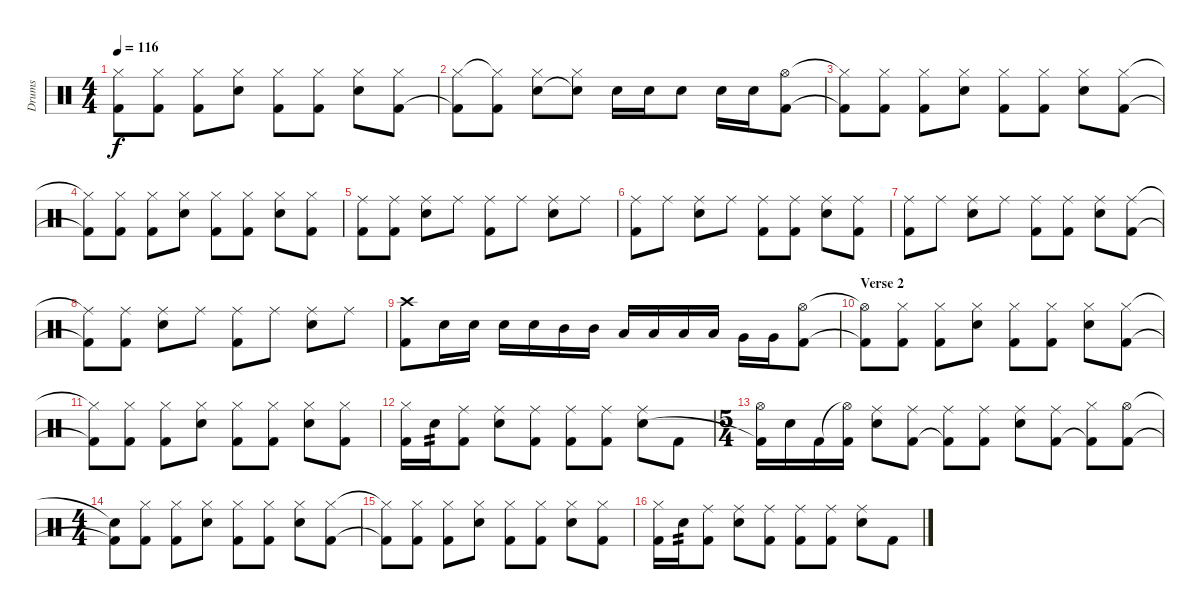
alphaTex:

\track ("Drums" "Drums") {instrument percussion}
\staff {score}
\articulation defaults
\ts (4 4)
\tempo 116
\clef neutral
\ks c
("Hi-Hat (closed)"{t} "Kick (hit) 2"{t}).8{dy f} ("Hi-Hat (closed)" "Kick (hit) 2").8 ("Hi-Hat (closed)" "Kick (hit) 2").8 ("Hi-Hat (closed)" "Snare (hit) 2").8 ("Hi-Hat (closed)" "Kick (hit) 2").8 ("Hi-Hat (closed)" "Kick (hit) 2").8 ("Hi-Hat (closed)" "Snare (hit) 2").8 ("Hi-Hat (closed)" "Kick (hit) 2").8 |
("Hi-Hat (closed)" "Kick (hit) 2"{t}).8 ("Hi-Hat (closed)"{t} "Kick (hit) 2").8 ("Hi-Hat (closed)" "Snare (hit) 2").8 ("Hi-Hat (closed)" "Snare (hit) 2"{t}).8 "Snare (hit) 2".16 "Snare (hit) 2".16 "Snare (hit) 2".8 "Snare (hit) 2".16 "Snare (hit) 2".16 ("Hi-Hat (open)" "Kick (hit) 2").8 |
("Hi-Hat (closed)"{t} "Kick (hit) 2"{t}).8 ("Hi-Hat (closed)" "Kick (hit) 2").8 ("Hi-Hat (closed)" "Kick (hit) 2").8 ("Hi-Hat (closed)" "Snare (hit) 2").8 ("Hi-Hat (closed)" "Kick (hit) 2").8 ("Hi-Hat (closed)" "Kick (hit) 2").8 ("Hi-Hat (closed)" "Snare (hit) 2").8 ("Hi-Hat (closed)" "Kick (hit) 2").8 |
("Hi-Hat (closed)"{t} "Kick (hit) 2"{t}).8 ("Hi-Hat (closed)" "Kick (hit) 2").8 ("Hi-Hat (closed)" "Kick (hit) 2").8 ("Hi-Hat (closed)" "Snare (hit) 2").8 ("Hi-Hat (closed)" "Kick (hit) 2").8 ("Hi-Hat (closed)" "Kick (hit) 2").8 ("Hi-Hat (closed)" "Snare (hit) 2").8 ("Hi-Hat (closed)" "Kick (hit) 2").8 |
("Ride (middle)" "Kick (hit) 2").8 ("Ride (middle)" "Kick (hit) 2").8 ("Ride (middle)" "Snare (hit) 2").8 "Ride (middle)".8 ("Ride (middle)" "Kick (hit) 2").8 "Ride (middle)".8 ("Ride (middle)" "Snare (hit) 2").8 "Ride (middle)".8 |
("Ride (middle)" "Kick (hit) 2").8 "Ride (middle)".8 ("Ride (middle)" "Snare (hit) 2").8 "Ride (middle)".8 ("Ride (middle)" "Kick (hit) 2").8 ("Ride (middle)" "Kick (hit) 2").8 ("Ride (middle)" "Snare (hit) 2").8 ("Ride (middle)" "Kick (hit) 2").8 |
("Ride (middle)" "Kick (hit) 2").8 "Ride (middle)".8 ("Ride (middle)" "Snare (hit) 2").8 "Ride (middle)".8 ("Ride (middle)" "Kick (hit) 2").8 ("Ride (middle)" "Kick (hit) 2").8 ("Ride (middle)" "Snare (hit) 2").8 ("Ride (middle)" "Kick (hit) 2").8 |
("Ride (middle)"{t} "Kick (hit) 2"{t}).8 ("Ride (middle)" "Kick (hit) 2").8 ("Ride (middle)" "Snare (hit) 2").8 "Ride (middle)".8 ("Ride (middle)" "Kick (hit) 2").8 "Ride (middle)".8 ("Ride (middle)" "Snare (hit) 2").8 "Ride (middle)".8 |
("Crash high (hit)" "Kick (hit) 2").8 "Snare (hit) 2".16 "Snare (hit) 2".16 "Snare (hit) 2".16 "Snare (hit) 2".16 "Mid Tom (hit)".16 "Mid Tom (hit)".16 "Low Tom (hit)".16 "Low Tom (hit)".16 "Low Tom (hit)".16 "Low Tom (hit)".16 "Very Low Tom (hit)".16 "Very Low Tom (hit)".16 ("Hi-Hat (open)" "Kick (hit) 2").8 |
\section ("" "Verse 2")
("Hi-Hat (open)"{t} "Kick (hit) 2"{t}).8 ("Hi-Hat (closed)" "Kick (hit) 2").8 ("Hi-Hat (closed)" "Kick (hit) 2").8 ("Hi-Hat (closed)" "Snare (hit) 2").8 ("Hi-Hat (closed)" "Kick (hit) 2").8 ("Hi-Hat (closed)" "Kick (hit) 2").8 ("Hi-Hat (closed)" "Snare (hit) 2").8 ("Hi-Hat (closed)" "Kick (hit) 2").8 |
("Hi-Hat (closed)"{t} "Kick (hit) 2"{t}).8 ("Hi-Hat (closed)" "Kick (hit) 2").8 ("Hi-Hat (closed)" "Kick (hit) 2").8 ("Hi-Hat (closed)" "Snare (hit) 2").8 ("Hi-Hat (closed)" "Kick (hit) 2").8 ("Hi-Hat (closed)" "Kick (hit) 2").8 ("Hi-Hat (closed)" "Snare (hit) 2").8 ("Hi-Hat (closed)" "Kick (hit) 2").8 |
("Hi-Hat (closed)" "Kick (hit) 2").16 "Snare (hit) 2".16{tp 2} ("Ride (middle)" "Kick (hit) 2").8 ("Ride (middle)" "Snare (hit) 2").8 ("Ride (middle)" "Kick (hit) 2").8 ("Ride (middle)" "Kick (hit) 2").8 ("Ride (middle)" "Kick (hit) 2").8 ("Ride (middle)" "Snare (hit) 2").8 "Kick (hit) 2".8 |
\ts (5 4)
("Hi-Hat (open)" "Kick (hit) 2"{t}).16 "Snare (hit) 2".16 "Kick (hit) 2".16 ("Hi-Hat (open)"{t} "Kick (hit) 2").16 ("Ride (middle)" "Snare (hit) 2").8 ("Ride (middle)" "Kick (hit) 2").8 ("Ride (middle)" "Kick (hit) 2"{t}).8 ("Ride (middle)" "Kick (hit) 2").8 ("Ride (middle)" "Snare (hit) 2").8 ("Ride (middle)" "Kick (hit) 2").8 ("Hi-Hat (closed)" "Kick (hit) 2"{t}).8 ("Hi-Hat (open)" "Kick (hit) 2").8 |
\ts (4 4)
("Snare (hit) 2"{t} "Kick (hit) 2"{t}).8 ("Hi-Hat (closed)" "Kick (hit) 2").8 ("Hi-Hat (closed)" "Kick (hit) 2").8 ("Hi-Hat (closed)" "Snare (hit) 2").8 ("Hi-Hat (closed)" "Kick (hit) 2").8 ("Hi-Hat (closed)" "Kick (hit) 2").8 ("Hi-Hat (closed)" "Snare (hit) 2").8 ("Hi-Hat (closed)" "Kick (hit) 2").8 |
("Hi-Hat (closed)"{t} "Kick (hit) 2"{t}).8 ("Hi-Hat (closed)" "Kick (hit) 2").8 ("Hi-Hat (closed)" "Kick (hit) 2").8 ("Hi-Hat (closed)" "Snare (hit) 2").8 ("Hi-Hat (closed)" "Kick (hit) 2").8 ("Hi-Hat (closed)" "Kick (hit) 2").8 ("Hi-Hat (closed)" "Snare (hit) 2").8 ("Hi-Hat (closed)" "Kick (hit) 2").8 |
("Hi-Hat (closed)" "Kick (hit) 2").16 "Snare (hit) 2".16{tp 2} ("Ride (middle)" "Kick (hit) 2").8 ("Ride (middle)" "Snare (hit) 2").8 ("Ride (middle)" "Kick (hit) 2").8 ("Ride (middle)" "Kick (hit) 2").8 ("Ride (middle)" "Kick (hit) 2").8 ("Ride (middle)" "Snare (hit) 2").8 "Kick (hit) 2".8
